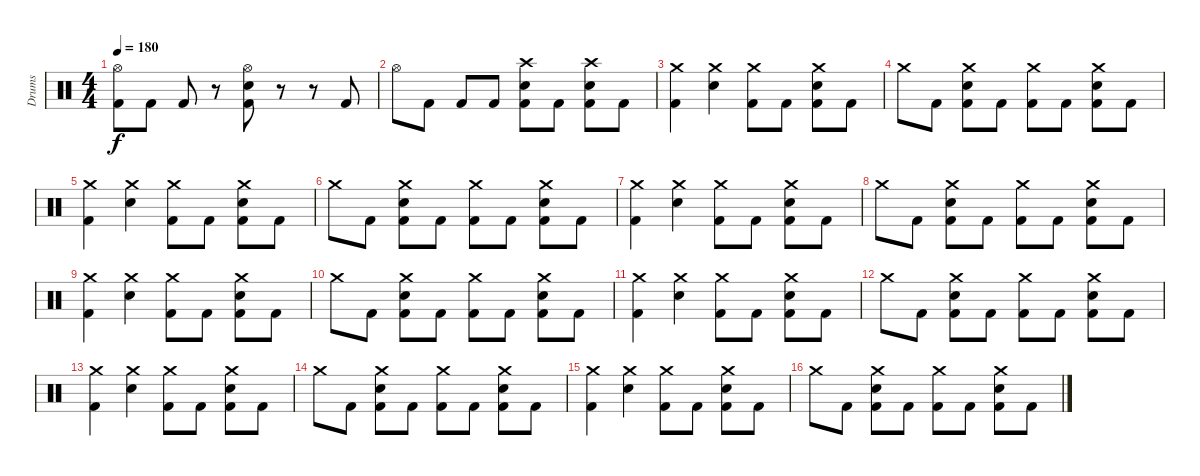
\track ("Drums" "Drums") {instrument percussion}
\staff {score}
\articulation defaults
\ts (4 4)
\tempo 180
\clef neutral
\ks c
("Hi-Hat (open)" "Kick (hit) 2").8{dy f} "Kick (hit) 2".8 "Kick (hit) 2".8 r.8 ("Hi-Hat (open)" "Snare (hit) 2" "Kick (hit) 2").8 r.8 r.8 "Kick (hit) 2".8 |
"Hi-Hat (open)".8 "Kick (hit) 2".8 "Kick (hit) 2".8 "Kick (hit) 2".8 ("Crash high (hit)" "Snare (hit) 2" "Kick (hit) 2").8 "Kick (hit) 2".8 ("Crash high (hit)" "Snare (hit) 2" "Kick (hit) 2").8 "Kick (hit) 2".8 |
("Crash medium (hit)" "Kick (hit) 2").4 ("Crash medium (hit)" "Snare (hit) 2").4 ("Crash medium (hit)" "Kick (hit) 2").8 "Kick (hit) 2".8 ("Crash medium (hit)" "Snare (hit) 2" "Kick (hit) 2").8 "Kick (hit) 2".8 |
"Crash medium (hit)".8 "Kick (hit) 2".8 ("Crash medium (hit)" "Snare (hit) 2" "Kick (hit) 2").8 "Kick (hit) 2".8 ("Crash medium (hit)" "Kick (hit) 2").8 "Kick (hit) 2".8 ("Crash medium (hit)" "Snare (hit) 2" "Kick (hit) 2").8 "Kick (hit) 2".8 |
("Crash medium (hit)" "Kick (hit) 2").4 ("Crash medium (hit)" "Snare (hit) 2").4 ("Crash medium (hit)" "Kick (hit) 2").8 "Kick (hit) 2".8 ("Crash medium (hit)" "Snare (hit) 2" "Kick (hit) 2").8 "Kick (hit) 2".8 |
"Crash medium (hit)".8 "Kick (hit) 2".8 ("Crash medium (hit)" "Snare (hit) 2" "Kick (hit) 2").8 "Kick (hit) 2".8 ("Crash medium (hit)" "Kick (hit) 2").8 "Kick (hit) 2".8 ("Crash medium (hit)" "Snare (hit) 2" "Kick (hit) 2").8 "Kick (hit) 2".8 |
("Crash medium (hit)" "Kick (hit) 2").4 ("Crash medium (hit)" "Snare (hit) 2").4 ("Crash medium (hit)" "Kick (hit) 2").8 "Kick (hit) 2".8 ("Crash medium (hit)" "Snare (hit) 2" "Kick (hit) 2").8 "Kick (hit) 2".8 |
"Crash medium (hit)".8 "Kick (hit) 2".8 ("Crash medium (hit)" "Snare (hit) 2" "Kick (hit) 2").8 "Kick (hit) 2".8 ("Crash medium (hit)" "Kick (hit) 2").8 "Kick (hit) 2".8 ("Crash medium (hit)" "Snare (hit) 2" "Kick (hit) 2").8 "Kick (hit) 2".8 |
("Crash medium (hit)" "Kick (hit) 2").4 ("Crash medium (hit)" "Snare (hit) 2").4 ("Crash medium (hit)" "Kick (hit) 2").8 "Kick (hit) 2".8 ("Crash medium (hit)" "Snare (hit) 2" "Kick (hit) 2").8 "Kick (hit) 2".8 |
"Crash medium (hit)".8 "Kick (hit) 2".8 ("Crash medium (hit)" "Snare (hit) 2" "Kick (hit) 2").8 "Kick (hit) 2".8 ("Crash medium (hit)" "Kick (hit) 2").8 "Kick (hit) 2".8 ("Crash medium (hit)" "Snare (hit) 2" "Kick (hit) 2").8 "Kick (hit) 2".8 |
("Crash medium (hit)" "Kick (hit) 2").4 ("Crash medium (hit)" "Snare (hit) 2").4 ("Crash medium (hit)" "Kick (hit) 2").8 "Kick (hit) 2".8 ("Crash medium (hit)" "Snare (hit) 2" "Kick (hit) 2").8 "Kick (hit) 2".8 |
"Crash medium (hit)".8 "Kick (hit) 2".8 ("Crash medium (hit)" "Snare (hit) 2" "Kick (hit) 2").8 "Kick (hit) 2".8 ("Crash medium (hit)" "Kick (hit) 2").8 "Kick (hit) 2".8 ("Crash medium (hit)" "Snare (hit) 2" "Kick (hit) 2").8 "Kick (hit) 2".8 |
("Crash medium (hit)" "Kick (hit) 2").4 ("Crash medium (hit)" "Snare (hit) 2").4 ("Crash medium (hit)" "Kick (hit) 2").8 "Kick (hit) 2".8 ("Crash medium (hit)" "Snare (hit) 2" "Kick (hit) 2").8 "Kick (hit) 2".8 |
"Crash medium (hit)".8 "Kick (hit) 2".8 ("Crash medium (hit)" "Snare (hit) 2" "Kick (hit) 2").8 "Kick (hit) 2".8 ("Crash medium (hit)" "Kick (hit) 2").8 "Kick (hit) 2".8 ("Crash medium (hit)" "Snare (hit) 2" "Kick (hit) 2").8 "Kick (hit) 2".8 |
("Crash medium (hit)" "Kick (hit) 2").4 ("Crash medium (hit)" "Snare (hit) 2").4 ("Crash medium (hit)" "Kick (hit) 2").8 "Kick (hit) 2".8 ("Crash medium (hit)" "Snare (hit) 2" "Kick (hit) 2").8 "Kick (hit) 2".8 |
"Crash medium (hit)".8 "Kick (hit) 2".8 ("Crash medium (hit)" "Snare (hit) 2" "Kick (hit) 2").8 "Kick (hit) 2".8 ("Crash medium (hit)" "Kick (hit) 2").8 "Kick (hit) 2".8 ("Crash medium (hit)" "Snare (hit) 2" "Kick (hit) 2").8 "Kick (hit) 2".8
